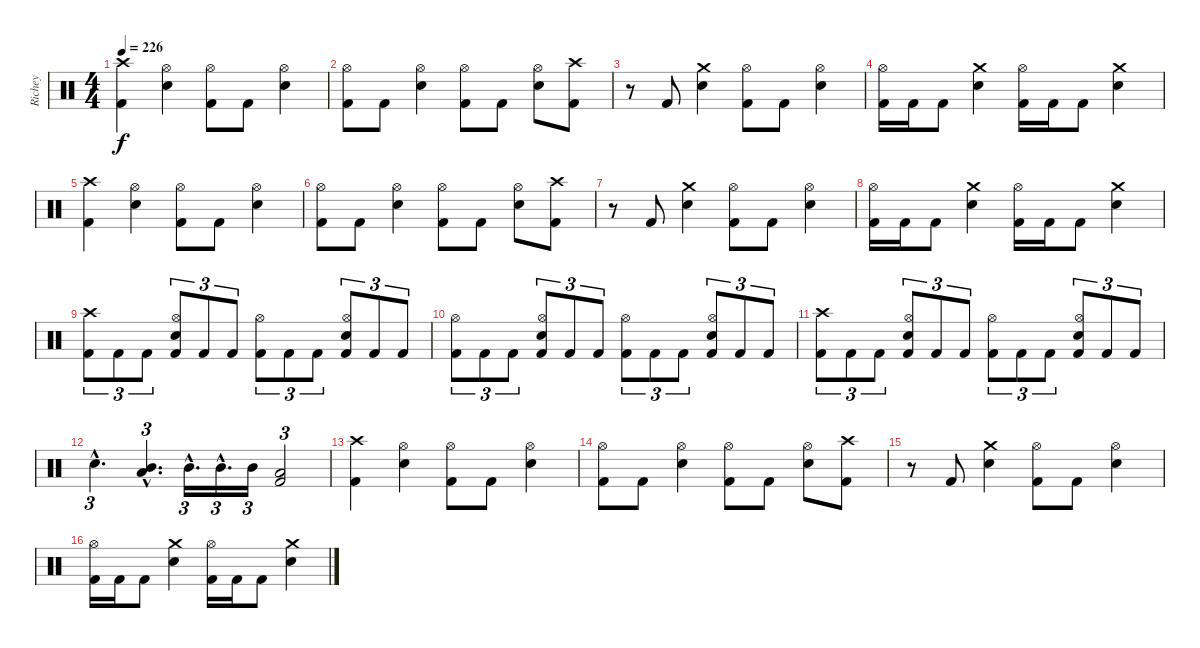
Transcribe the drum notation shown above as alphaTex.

\track ("Richey" "Richey") {instrument percussion}
\staff {score}
\articulation defaults
\ts (4 4)
\tempo 226
\clef neutral
\ks c
("Crash high (hit)" "Kick (hit) 2").4{dy f} ("Hi-Hat (open)" "Snare (hit) 2").4 ("Hi-Hat (open)" "Kick (hit) 2").8 "Kick (hit) 2".8 ("Hi-Hat (open)" "Snare (hit) 2").4 |
("Hi-Hat (open)" "Kick (hit) 2").8 "Kick (hit) 2".8 ("Hi-Hat (open)" "Snare (hit) 2").4 ("Hi-Hat (open)" "Kick (hit) 2").8 "Kick (hit) 2".8 ("Hi-Hat (open)" "Snare (hit) 2").8 ("Crash high (hit)" "Kick (hit) 2").8 |
r.8 "Kick (hit) 2".8 ("Crash medium (hit)" "Snare (hit) 2").4 ("Hi-Hat (open)" "Kick (hit) 2").8 "Kick (hit) 2".8 ("Hi-Hat (open)" "Snare (hit) 2").4 |
("Hi-Hat (open)" "Kick (hit) 2").16 "Kick (hit) 2".16 "Kick (hit) 2".8 ("Crash medium (hit)" "Snare (hit) 2").4 ("Hi-Hat (open)" "Kick (hit) 2").16 "Kick (hit) 2".16 "Kick (hit) 2".8 ("Crash medium (hit)" "Snare (hit) 2").4 |
("Crash high (hit)" "Kick (hit) 2").4 ("Hi-Hat (open)" "Snare (hit) 2").4 ("Hi-Hat (open)" "Kick (hit) 2").8 "Kick (hit) 2".8 ("Hi-Hat (open)" "Snare (hit) 2").4 |
("Hi-Hat (open)" "Kick (hit) 2").8 "Kick (hit) 2".8 ("Hi-Hat (open)" "Snare (hit) 2").4 ("Hi-Hat (open)" "Kick (hit) 2").8 "Kick (hit) 2".8 ("Hi-Hat (open)" "Snare (hit) 2").8 ("Crash high (hit)" "Kick (hit) 2").8 |
r.8 "Kick (hit) 2".8 ("Crash medium (hit)" "Snare (hit) 2").4 ("Hi-Hat (open)" "Kick (hit) 2").8 "Kick (hit) 2".8 ("Hi-Hat (open)" "Snare (hit) 2").4 |
("Hi-Hat (open)" "Kick (hit) 2").16 "Kick (hit) 2".16 "Kick (hit) 2".8 ("Crash medium (hit)" "Snare (hit) 2").4 ("Hi-Hat (open)" "Kick (hit) 2").16 "Kick (hit) 2".16 "Kick (hit) 2".8 ("Crash medium (hit)" "Snare (hit) 2").4 |
("Crash high (hit)" "Kick (hit) 2").8{tu (3 2)} "Kick (hit) 2".8{tu (3 2)} "Kick (hit) 2".8{tu (3 2)} ("Hi-Hat (open)" "Snare (hit) 2" "Kick (hit) 2").8{tu (3 2)} "Kick (hit) 2".8{tu (3 2)} "Kick (hit) 2".8{tu (3 2)} ("Hi-Hat (open)" "Kick (hit) 2").8{tu (3 2)} "Kick (hit) 2".8{tu (3 2)} "Kick (hit) 2".8{tu (3 2)} ("Hi-Hat (open)" "Snare (hit) 2" "Kick (hit) 2").8{tu (3 2)} "Kick (hit) 2".8{tu (3 2)} "Kick (hit) 2".8{tu (3 2)} |
("Hi-Hat (open)" "Kick (hit) 2").8{tu (3 2)} "Kick (hit) 2".8{tu (3 2)} "Kick (hit) 2".8{tu (3 2)} ("Hi-Hat (open)" "Snare (hit) 2" "Kick (hit) 2").8{tu (3 2)} "Kick (hit) 2".8{tu (3 2)} "Kick (hit) 2".8{tu (3 2)} ("Hi-Hat (open)" "Kick (hit) 2").8{tu (3 2)} "Kick (hit) 2".8{tu (3 2)} "Kick (hit) 2".8{tu (3 2)} ("Hi-Hat (open)" "Snare (hit) 2" "Kick (hit) 2").8{tu (3 2)} "Kick (hit) 2".8{tu (3 2)} "Kick (hit) 2".8{tu (3 2)} |
("Crash high (hit)" "Kick (hit) 2").8{tu (3 2)} "Kick (hit) 2".8{tu (3 2)} "Kick (hit) 2".8{tu (3 2)} ("Hi-Hat (open)" "Snare (hit) 2" "Kick (hit) 2").8{tu (3 2)} "Kick (hit) 2".8{tu (3 2)} "Kick (hit) 2".8{tu (3 2)} ("Hi-Hat (open)" "Kick (hit) 2").8{tu (3 2)} "Kick (hit) 2".8{tu (3 2)} "Kick (hit) 2".8{tu (3 2)} ("Hi-Hat (open)" "Snare (hit) 2" "Kick (hit) 2").8{tu (3 2)} "Kick (hit) 2".8{tu (3 2)} "Kick (hit) 2".8{tu (3 2)} |
"Snare (hit) 2"{hac}.4{d tu (3 2)} ("Mid Tom (hit)"{hac} "Low Tom (hit)"{hac}).4{d tu (3 2)} "Mid Tom (hit)"{hac}.16{d tu (3 2)} "Mid Tom (hit)"{hac}.16{d tu (3 2)} "Mid Tom (hit)".16{tu (3 2)} ("Low Tom (hit)" "Kick (hit) 2").2{tu (3 2)} |
("Crash high (hit)" "Kick (hit) 2").4 ("Hi-Hat (open)" "Snare (hit) 2").4 ("Hi-Hat (open)" "Kick (hit) 2").8 "Kick (hit) 2".8 ("Hi-Hat (open)" "Snare (hit) 2").4 |
("Hi-Hat (open)" "Kick (hit) 2").8 "Kick (hit) 2".8 ("Hi-Hat (open)" "Snare (hit) 2").4 ("Hi-Hat (open)" "Kick (hit) 2").8 "Kick (hit) 2".8 ("Hi-Hat (open)" "Snare (hit) 2").8 ("Crash high (hit)" "Kick (hit) 2").8 |
r.8 "Kick (hit) 2".8 ("Crash medium (hit)" "Snare (hit) 2").4 ("Hi-Hat (open)" "Kick (hit) 2").8 "Kick (hit) 2".8 ("Hi-Hat (open)" "Snare (hit) 2").4 |
("Hi-Hat (open)" "Kick (hit) 2").16 "Kick (hit) 2".16 "Kick (hit) 2".8 ("Crash medium (hit)" "Snare (hit) 2").4 ("Hi-Hat (open)" "Kick (hit) 2").16 "Kick (hit) 2".16 "Kick (hit) 2".8 ("Crash medium (hit)" "Snare (hit) 2").4
